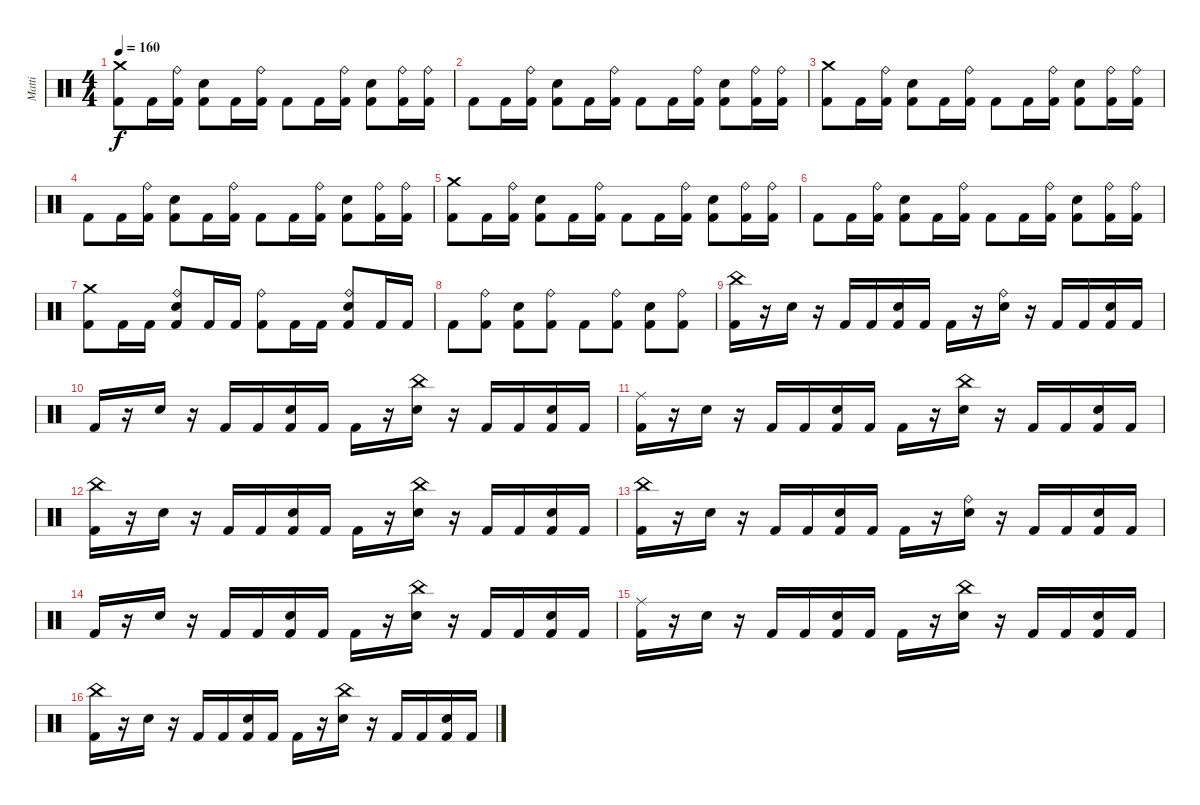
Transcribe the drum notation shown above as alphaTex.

\track ("Matti" "Matti") {instrument percussion}
\staff {score}
\articulation defaults
\ts (4 4)
\tempo 160
\clef neutral
\ks c
("Crash medium (hit)" "Kick (hit) 2").8{dy f} "Kick (hit) 2".16 ("Ride (bell)" "Kick (hit) 2").16 ("Electric Snare (hit)" "Kick (hit) 2").8 "Kick (hit) 2".16 ("Ride (bell)" "Kick (hit) 2").16 "Kick (hit) 2".8 "Kick (hit) 2".16 ("Ride (bell)" "Kick (hit) 2").16 ("Electric Snare (hit)" "Kick (hit) 2").8 ("Ride (bell)" "Kick (hit) 2").16 ("Ride (bell)" "Kick (hit) 2").16 |
"Kick (hit) 2".8 "Kick (hit) 2".16 ("Ride (bell)" "Kick (hit) 2").16 ("Electric Snare (hit)" "Kick (hit) 2").8 "Kick (hit) 2".16 ("Ride (bell)" "Kick (hit) 2").16 "Kick (hit) 2".8 "Kick (hit) 2".16 ("Ride (bell)" "Kick (hit) 2").16 ("Electric Snare (hit)" "Kick (hit) 2").8 ("Ride (bell)" "Kick (hit) 2").16 ("Ride (bell)" "Kick (hit) 2").16 |
("Crash medium (hit)" "Kick (hit) 2").8 "Kick (hit) 2".16 ("Ride (bell)" "Kick (hit) 2").16 ("Electric Snare (hit)" "Kick (hit) 2").8 "Kick (hit) 2".16 ("Ride (bell)" "Kick (hit) 2").16 "Kick (hit) 2".8 "Kick (hit) 2".16 ("Ride (bell)" "Kick (hit) 2").16 ("Electric Snare (hit)" "Kick (hit) 2").8 ("Ride (bell)" "Kick (hit) 2").16 ("Ride (bell)" "Kick (hit) 2").16 |
"Kick (hit) 2".8 "Kick (hit) 2".16 ("Ride (bell)" "Kick (hit) 2").16 ("Electric Snare (hit)" "Kick (hit) 2").8 "Kick (hit) 2".16 ("Ride (bell)" "Kick (hit) 2").16 "Kick (hit) 2".8 "Kick (hit) 2".16 ("Ride (bell)" "Kick (hit) 2").16 ("Electric Snare (hit)" "Kick (hit) 2").8 ("Ride (bell)" "Kick (hit) 2").16 ("Ride (bell)" "Kick (hit) 2").16 |
("Crash medium (hit)" "Kick (hit) 2").8 "Kick (hit) 2".16 ("Ride (bell)" "Kick (hit) 2").16 ("Electric Snare (hit)" "Kick (hit) 2").8 "Kick (hit) 2".16 ("Ride (bell)" "Kick (hit) 2").16 "Kick (hit) 2".8 "Kick (hit) 2".16 ("Ride (bell)" "Kick (hit) 2").16 ("Electric Snare (hit)" "Kick (hit) 2").8 ("Ride (bell)" "Kick (hit) 2").16 ("Ride (bell)" "Kick (hit) 2").16 |
"Kick (hit) 2".8 "Kick (hit) 2".16 ("Ride (bell)" "Kick (hit) 2").16 ("Electric Snare (hit)" "Kick (hit) 2").8 "Kick (hit) 2".16 ("Ride (bell)" "Kick (hit) 2").16 "Kick (hit) 2".8 "Kick (hit) 2".16 ("Ride (bell)" "Kick (hit) 2").16 ("Electric Snare (hit)" "Kick (hit) 2").8 ("Ride (bell)" "Kick (hit) 2").16 ("Ride (bell)" "Kick (hit) 2").16 |
("Crash medium (hit)" "Kick (hit) 2").8 "Kick (hit) 2".16 "Kick (hit) 2".16 ("Ride (bell)" "Electric Snare (hit)" "Kick (hit) 2").8 "Kick (hit) 2".16 "Kick (hit) 2".16 ("Ride (bell)" "Kick (hit) 2").8 "Kick (hit) 2".16 "Kick (hit) 2".16 ("Ride (bell)" "Electric Snare (hit)" "Kick (hit) 2").8 "Kick (hit) 2".16 "Kick (hit) 2".16 |
"Kick (hit) 2".8 ("Ride (bell)" "Kick (hit) 2").8 ("Electric Snare (hit)" "Kick (hit) 2").8 ("Ride (bell)" "Kick (hit) 2").8 "Kick (hit) 2".8 ("Ride (bell)" "Kick (hit) 2").8 ("Electric Snare (hit)" "Kick (hit) 2").8 ("Ride (bell)" "Kick (hit) 2").8 |
("China (hit)" "Kick (hit) 2").16 r.16 "Electric Snare (hit)".16 r.16 "Kick (hit) 2".16 "Kick (hit) 2".16 ("Electric Snare (hit)" "Kick (hit) 2").16 "Kick (hit) 2".16 "Kick (hit) 2".16 r.16 ("Ride (bell)" "Electric Snare (hit)").16 r.16 "Kick (hit) 2".16 "Kick (hit) 2".16 ("Electric Snare (hit)" "Kick (hit) 2").16 "Kick (hit) 2".16 |
"Kick (hit) 2".16 r.16 "Electric Snare (hit)".16 r.16 "Kick (hit) 2".16 "Kick (hit) 2".16 ("Electric Snare (hit)" "Kick (hit) 2").16 "Kick (hit) 2".16 "Kick (hit) 2".16 r.16 ("China (hit)" "Electric Snare (hit)").16 r.16 "Kick (hit) 2".16 "Kick (hit) 2".16 ("Electric Snare (hit)" "Kick (hit) 2").16 "Kick (hit) 2".16 |
("Ride (middle)" "Kick (hit) 2").16 r.16 "Electric Snare (hit)".16 r.16 "Kick (hit) 2".16 "Kick (hit) 2".16 ("Electric Snare (hit)" "Kick (hit) 2").16 "Kick (hit) 2".16 "Kick (hit) 2".16 r.16 ("China (hit)" "Electric Snare (hit)").16 r.16 "Kick (hit) 2".16 "Kick (hit) 2".16 ("Electric Snare (hit)" "Kick (hit) 2").16 "Kick (hit) 2".16 |
("China (hit)" "Kick (hit) 2").16 r.16 "Electric Snare (hit)".16 r.16 "Kick (hit) 2".16 "Kick (hit) 2".16 ("Electric Snare (hit)" "Kick (hit) 2").16 "Kick (hit) 2".16 "Kick (hit) 2".16 r.16 ("China (hit)" "Electric Snare (hit)").16 r.16 "Kick (hit) 2".16 "Kick (hit) 2".16 ("Electric Snare (hit)" "Kick (hit) 2").16 "Kick (hit) 2".16 |
("China (hit)" "Kick (hit) 2").16 r.16 "Electric Snare (hit)".16 r.16 "Kick (hit) 2".16 "Kick (hit) 2".16 ("Electric Snare (hit)" "Kick (hit) 2").16 "Kick (hit) 2".16 "Kick (hit) 2".16 r.16 ("Ride (bell)" "Electric Snare (hit)").16 r.16 "Kick (hit) 2".16 "Kick (hit) 2".16 ("Electric Snare (hit)" "Kick (hit) 2").16 "Kick (hit) 2".16 |
"Kick (hit) 2".16 r.16 "Electric Snare (hit)".16 r.16 "Kick (hit) 2".16 "Kick (hit) 2".16 ("Electric Snare (hit)" "Kick (hit) 2").16 "Kick (hit) 2".16 "Kick (hit) 2".16 r.16 ("China (hit)" "Electric Snare (hit)").16 r.16 "Kick (hit) 2".16 "Kick (hit) 2".16 ("Electric Snare (hit)" "Kick (hit) 2").16 "Kick (hit) 2".16 |
("Ride (middle)" "Kick (hit) 2").16 r.16 "Electric Snare (hit)".16 r.16 "Kick (hit) 2".16 "Kick (hit) 2".16 ("Electric Snare (hit)" "Kick (hit) 2").16 "Kick (hit) 2".16 "Kick (hit) 2".16 r.16 ("China (hit)" "Electric Snare (hit)").16 r.16 "Kick (hit) 2".16 "Kick (hit) 2".16 ("Electric Snare (hit)" "Kick (hit) 2").16 "Kick (hit) 2".16 |
("China (hit)" "Kick (hit) 2").16 r.16 "Electric Snare (hit)".16 r.16 "Kick (hit) 2".16 "Kick (hit) 2".16 ("Electric Snare (hit)" "Kick (hit) 2").16 "Kick (hit) 2".16 "Kick (hit) 2".16 r.16 ("China (hit)" "Electric Snare (hit)").16 r.16 "Kick (hit) 2".16 "Kick (hit) 2".16 ("Electric Snare (hit)" "Kick (hit) 2").16 "Kick (hit) 2".16
